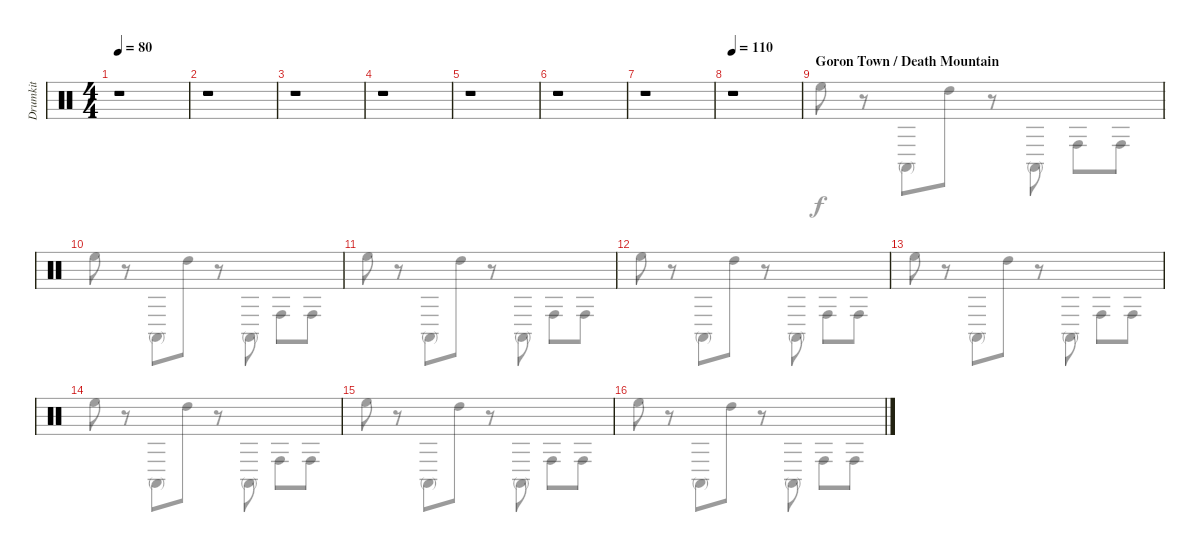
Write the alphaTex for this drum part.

\track ("Drumkit" "Drumkit") {instrument percussion}
\staff {score}
\articulation defaults
\voice
\ts (4 4)
\tempo 80
\clef neutral
\ks c
r.1{dy f} |
r.1 |
r.1 |
r.1 |
r.1 |
r.1 |
r.1 |
\tempo 110
r.1 |
\section ("" "Goron Town / Death Mountain")
|
|
|
|
|
|
|
\voice
\clef neutral
\ottava regular
\simile none
\ks c
|
|
|
|
|
|
|
|
"High Floor Tom (hit)".8 r.8 "Conga high (mute)".8 "High Tom (hit)".8 r.8 "Conga high (mute)".8 "Conga high (hit)".8 "Conga high (hit)".8 |
"High Floor Tom (hit)".8 r.8 "Conga high (mute)".8 "High Tom (hit)".8 r.8 "Conga high (mute)".8 "Conga high (hit)".8 "Conga high (hit)".8 |
"High Floor Tom (hit)".8 r.8 "Conga high (mute)".8 "High Tom (hit)".8 r.8 "Conga high (mute)".8 "Conga high (hit)".8 "Conga high (hit)".8 |
"High Floor Tom (hit)".8 r.8 "Conga high (mute)".8 "High Tom (hit)".8 r.8 "Conga high (mute)".8 "Conga high (hit)".8 "Conga high (hit)".8 |
"High Floor Tom (hit)".8 r.8 "Conga high (mute)".8 "High Tom (hit)".8 r.8 "Conga high (mute)".8 "Conga high (hit)".8 "Conga high (hit)".8 |
"High Floor Tom (hit)".8 r.8 "Conga high (mute)".8 "High Tom (hit)".8 r.8 "Conga high (mute)".8 "Conga high (hit)".8 "Conga high (hit)".8 |
"High Floor Tom (hit)".8 r.8 "Conga high (mute)".8 "High Tom (hit)".8 r.8 "Conga high (mute)".8 "Conga high (hit)".8 "Conga high (hit)".8 |
"High Floor Tom (hit)".8 r.8 "Conga high (mute)".8 "High Tom (hit)".8 r.8 "Conga high (mute)".8 "Conga high (hit)".8 "Conga high (hit)".8
